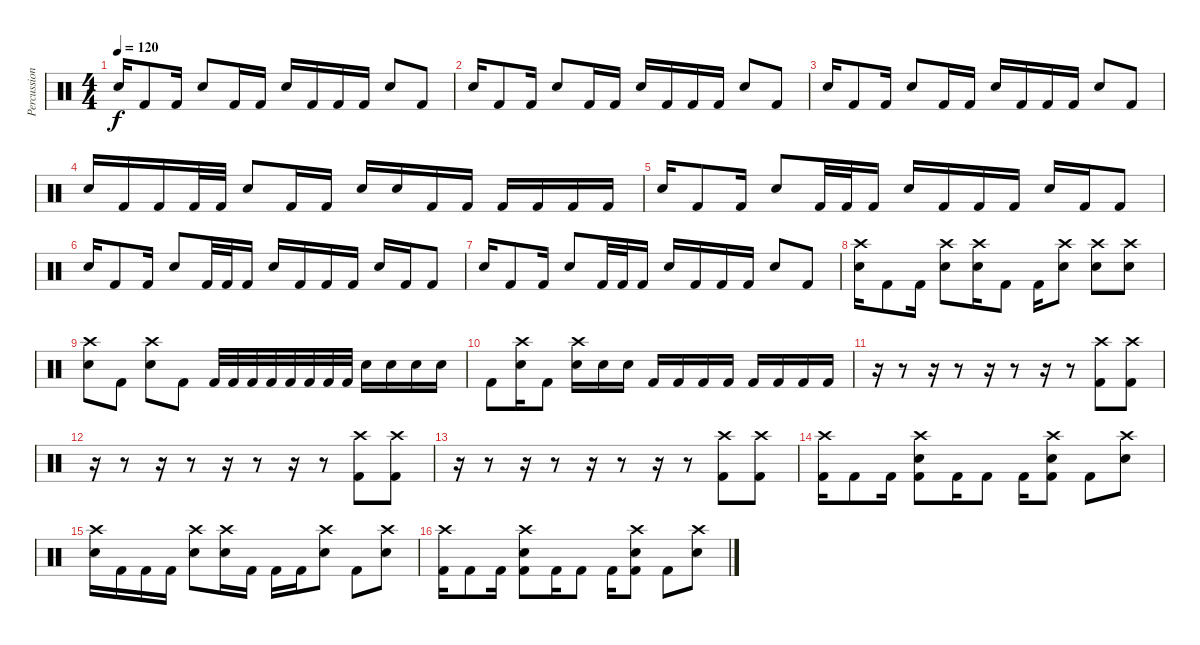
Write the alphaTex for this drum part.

\track ("Percussion" "Percussion") {instrument percussion}
\staff {score}
\articulation defaults
\ts (4 4)
\tempo 120
\clef neutral
\ks c "Snare (hit) 2".16{dy f} "Kick (hit) 2".8 "Kick (hit) 2".16 "Snare (hit) 2".8 "Kick (hit) 2".16 "Kick (hit) 2".16 "Snare (hit) 2".16 "Kick (hit) 2".16 "Kick (hit) 2".16 "Kick (hit) 2".16 "Snare (hit) 2".8 "Kick (hit) 2".8
|
"Snare (hit) 2".16 "Kick (hit) 2".8 "Kick (hit) 2".16 "Snare (hit) 2".8 "Kick (hit) 2".16 "Kick (hit) 2".16 "Snare (hit) 2".16 "Kick (hit) 2".16 "Kick (hit) 2".16 "Kick (hit) 2".16 "Snare (hit) 2".8 "Kick (hit) 2".8 |
"Snare (hit) 2".16 "Kick (hit) 2".8 "Kick (hit) 2".16 "Snare (hit) 2".8 "Kick (hit) 2".16 "Kick (hit) 2".16 "Snare (hit) 2".16 "Kick (hit) 2".16 "Kick (hit) 2".16 "Kick (hit) 2".16 "Snare (hit) 2".8 "Kick (hit) 2".8 |
"Snare (hit) 2".16 "Kick (hit) 2".16 "Kick (hit) 2".16 "Kick (hit) 2".32 "Kick (hit) 2".32 "Snare (hit) 2".8 "Kick (hit) 2".16 "Kick (hit) 2".16 "Snare (hit) 2".16 "Snare (hit) 2".16 "Kick (hit) 2".16 "Kick (hit) 2".16 "Kick (hit) 2".16 "Kick (hit) 2".16 "Kick (hit) 2".16 "Kick (hit) 2".16 |
"Snare (hit) 2".16 "Kick (hit) 2".8 "Kick (hit) 2".16 "Snare (hit) 2".8 "Kick (hit) 2".32 "Kick (hit) 2".32 "Kick (hit) 2".16 "Snare (hit) 2".16 "Kick (hit) 2".16 "Kick (hit) 2".16 "Kick (hit) 2".16 "Snare (hit) 2".16 "Kick (hit) 2".16 "Kick (hit) 2".8 |
"Snare (hit) 2".16 "Kick (hit) 2".8 "Kick (hit) 2".16 "Snare (hit) 2".8 "Kick (hit) 2".32 "Kick (hit) 2".32 "Kick (hit) 2".16 "Snare (hit) 2".16 "Kick (hit) 2".16 "Kick (hit) 2".16 "Kick (hit) 2".16 "Snare (hit) 2".16 "Kick (hit) 2".16 "Kick (hit) 2".8 |
"Snare (hit) 2".16 "Kick (hit) 2".8 "Kick (hit) 2".16 "Snare (hit) 2".8 "Kick (hit) 2".32 "Kick (hit) 2".32 "Kick (hit) 2".16 "Snare (hit) 2".16 "Kick (hit) 2".16 "Kick (hit) 2".16 "Kick (hit) 2".16 "Snare (hit) 2".8 "Kick (hit) 2".8 |
("Snare (hit) 2" "Crash high (hit)").16 "Kick (hit) 2".8 "Kick (hit) 2".16 ("Snare (hit) 2" "Crash high (hit)").8 ("Snare (hit) 2" "Crash high (hit)").16 "Kick (hit) 2".8 "Kick (hit) 2".16 ("Snare (hit) 2" "Crash high (hit)").8 ("Snare (hit) 2" "Crash high (hit)").8 ("Snare (hit) 2" "Crash high (hit)").8 |
("Snare (hit) 2" "Crash high (hit)").8 "Kick (hit) 2".8 ("Snare (hit) 2" "Crash high (hit)").8 "Kick (hit) 2".8 "Kick (hit) 2".32 "Kick (hit) 2".32 "Kick (hit) 2".32 "Kick (hit) 2".32 "Kick (hit) 2".32 "Kick (hit) 2".32 "Kick (hit) 2".32 "Kick (hit) 2".32 "Snare (hit) 2".16 "Snare (hit) 2".16 "Snare (hit) 2".16 "Snare (hit) 2".16 |
"Kick (hit) 2".8 ("Snare (hit) 2" "Crash high (hit)").16 "Kick (hit) 2".8 ("Snare (hit) 2" "Crash high (hit)").16 "Snare (hit) 2".16 "Snare (hit) 2".16 "Kick (hit) 2".16 "Kick (hit) 2".16 "Kick (hit) 2".16 "Kick (hit) 2".16 "Kick (hit) 2".16 "Kick (hit) 2".16 "Kick (hit) 2".16 "Kick (hit) 2".16 |
r.16 r.8 r.16 r.8 r.16 r.8 r.16 r.8 ("Kick (hit) 2" "Crash high (hit)").8 ("Kick (hit) 2" "Crash high (hit)").8 |
r.16 r.8 r.16 r.8 r.16 r.8 r.16 r.8 ("Kick (hit) 2" "Crash high (hit)").8 ("Kick (hit) 2" "Crash high (hit)").8 |
r.16 r.8 r.16 r.8 r.16 r.8 r.16 r.8 ("Kick (hit) 2" "Crash high (hit)").8 ("Kick (hit) 2" "Crash high (hit)").8 |
("Crash high (hit)" "Kick (hit) 2").16 "Kick (hit) 2".8 "Kick (hit) 2".16 ("Crash high (hit)" "Snare (hit) 2" "Kick (hit) 2").8 "Kick (hit) 2".16 "Kick (hit) 2".8 "Kick (hit) 2".16 ("Crash high (hit)" "Snare (hit) 2" "Kick (hit) 2").8 "Kick (hit) 2".8 ("Crash high (hit)" "Snare (hit) 2").8 |
("Crash high (hit)" "Snare (hit) 2").16 "Kick (hit) 2".16 "Kick (hit) 2".16 "Kick (hit) 2".16 ("Crash high (hit)" "Snare (hit) 2").8 ("Crash high (hit)" "Snare (hit) 2").16 "Kick (hit) 2".16 "Kick (hit) 2".16 "Kick (hit) 2".16 ("Crash high (hit)" "Snare (hit) 2").8 "Kick (hit) 2".8 ("Crash high (hit)" "Snare (hit) 2").8 |
("Crash high (hit)" "Kick (hit) 2").16 "Kick (hit) 2".8 "Kick (hit) 2".16 ("Crash high (hit)" "Snare (hit) 2" "Kick (hit) 2").8 "Kick (hit) 2".16 "Kick (hit) 2".8 "Kick (hit) 2".16 ("Crash high (hit)" "Snare (hit) 2" "Kick (hit) 2").8 "Kick (hit) 2".8 ("Crash high (hit)" "Snare (hit) 2").8
